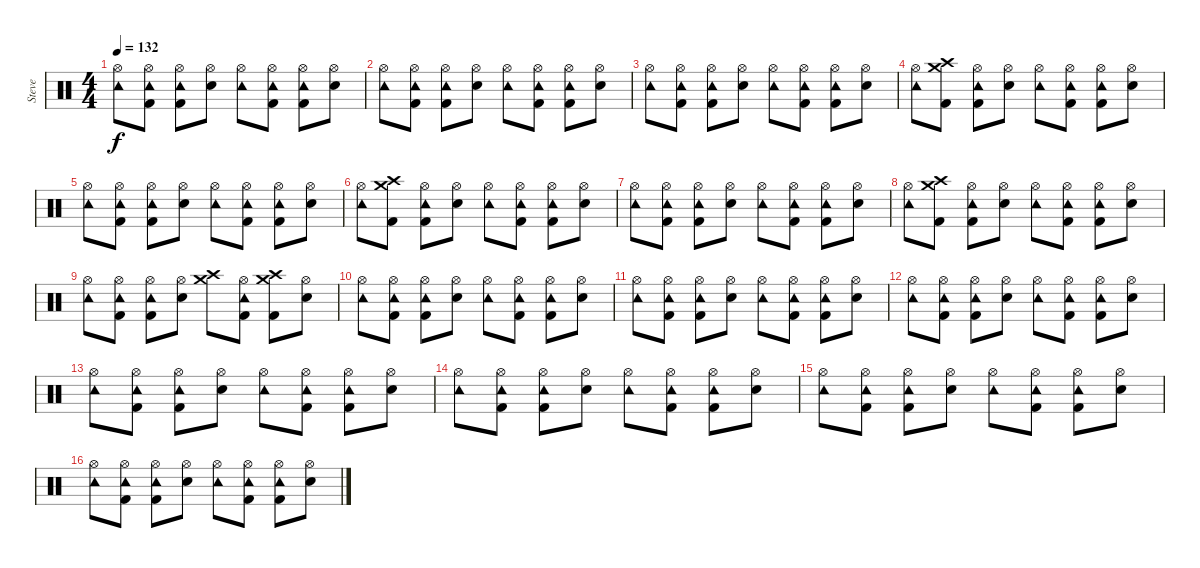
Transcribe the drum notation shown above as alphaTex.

\track ("Steve" "Steve") {instrument percussion}
\staff {score}
\articulation defaults
\ts (4 4)
\tempo 132
\clef neutral
\ks c
("Hi-Hat (open)" "Tambourine (hit)").8{dy f} ("Hi-Hat (open)" "Tambourine (hit)" "Kick (hit) 2").8 ("Hi-Hat (open)" "Tambourine (hit)" "Kick (hit) 2").8 ("Hi-Hat (open)" "Snare (hit) 2").8 ("Hi-Hat (open)" "Tambourine (hit)").8 ("Hi-Hat (open)" "Tambourine (hit)" "Kick (hit) 2").8 ("Hi-Hat (open)" "Tambourine (hit)" "Kick (hit) 2").8 ("Hi-Hat (open)" "Snare (hit) 2").8 |
("Hi-Hat (open)" "Tambourine (hit)").8 ("Hi-Hat (open)" "Tambourine (hit)" "Kick (hit) 2").8 ("Hi-Hat (open)" "Tambourine (hit)" "Kick (hit) 2").8 ("Hi-Hat (open)" "Snare (hit) 2").8 ("Hi-Hat (open)" "Tambourine (hit)").8 ("Hi-Hat (open)" "Tambourine (hit)" "Kick (hit) 2").8 ("Hi-Hat (open)" "Tambourine (hit)" "Kick (hit) 2").8 ("Hi-Hat (open)" "Snare (hit) 2").8 |
("Hi-Hat (open)" "Tambourine (hit)").8 ("Hi-Hat (open)" "Tambourine (hit)" "Kick (hit) 2").8 ("Hi-Hat (open)" "Tambourine (hit)" "Kick (hit) 2").8 ("Hi-Hat (open)" "Snare (hit) 2").8 ("Hi-Hat (open)" "Tambourine (hit)").8 ("Hi-Hat (open)" "Tambourine (hit)" "Kick (hit) 2").8 ("Hi-Hat (open)" "Tambourine (hit)" "Kick (hit) 2").8 ("Hi-Hat (open)" "Snare (hit) 2").8 |
("Hi-Hat (open)" "Tambourine (hit)").8 ("Crash high (hit)" "Crash medium (hit)" "Kick (hit) 2").8 ("Hi-Hat (open)" "Tambourine (hit)" "Kick (hit) 2").8 ("Hi-Hat (open)" "Snare (hit) 2").8 ("Hi-Hat (open)" "Tambourine (hit)").8 ("Hi-Hat (open)" "Tambourine (hit)" "Kick (hit) 2").8 ("Hi-Hat (open)" "Tambourine (hit)" "Kick (hit) 2").8 ("Hi-Hat (open)" "Snare (hit) 2").8 |
("Hi-Hat (open)" "Tambourine (hit)").8 ("Hi-Hat (open)" "Tambourine (hit)" "Kick (hit) 2").8 ("Hi-Hat (open)" "Tambourine (hit)" "Kick (hit) 2").8 ("Hi-Hat (open)" "Snare (hit) 2").8 ("Hi-Hat (open)" "Tambourine (hit)").8 ("Hi-Hat (open)" "Tambourine (hit)" "Kick (hit) 2").8 ("Hi-Hat (open)" "Tambourine (hit)" "Kick (hit) 2").8 ("Hi-Hat (open)" "Snare (hit) 2").8 |
("Hi-Hat (open)" "Tambourine (hit)").8 ("Crash high (hit)" "Crash medium (hit)" "Kick (hit) 2").8 ("Hi-Hat (open)" "Tambourine (hit)" "Kick (hit) 2").8 ("Hi-Hat (open)" "Snare (hit) 2").8 ("Hi-Hat (open)" "Tambourine (hit)").8 ("Hi-Hat (open)" "Tambourine (hit)" "Kick (hit) 2").8 ("Hi-Hat (open)" "Tambourine (hit)" "Kick (hit) 2").8 ("Hi-Hat (open)" "Snare (hit) 2").8 |
("Hi-Hat (open)" "Tambourine (hit)").8 ("Hi-Hat (open)" "Tambourine (hit)" "Kick (hit) 2").8 ("Hi-Hat (open)" "Tambourine (hit)" "Kick (hit) 2").8 ("Hi-Hat (open)" "Snare (hit) 2").8 ("Hi-Hat (open)" "Tambourine (hit)").8 ("Hi-Hat (open)" "Tambourine (hit)" "Kick (hit) 2").8 ("Hi-Hat (open)" "Tambourine (hit)" "Kick (hit) 2").8 ("Hi-Hat (open)" "Snare (hit) 2").8 |
("Hi-Hat (open)" "Tambourine (hit)").8 ("Crash high (hit)" "Crash medium (hit)" "Kick (hit) 2").8 ("Hi-Hat (open)" "Tambourine (hit)" "Kick (hit) 2").8 ("Hi-Hat (open)" "Snare (hit) 2").8 ("Hi-Hat (open)" "Tambourine (hit)").8 ("Hi-Hat (open)" "Tambourine (hit)" "Kick (hit) 2").8 ("Hi-Hat (open)" "Tambourine (hit)" "Kick (hit) 2").8 ("Hi-Hat (open)" "Snare (hit) 2").8 |
("Hi-Hat (open)" "Tambourine (hit)").8 ("Hi-Hat (open)" "Tambourine (hit)" "Kick (hit) 2").8 ("Hi-Hat (open)" "Tambourine (hit)" "Kick (hit) 2").8 ("Hi-Hat (open)" "Snare (hit) 2").8 ("Crash high (hit)" "Crash medium (hit)").8 ("Hi-Hat (open)" "Tambourine (hit)" "Kick (hit) 2").8 ("Crash high (hit)" "Crash medium (hit)" "Kick (hit) 2").8 ("Hi-Hat (open)" "Snare (hit) 2").8 |
("Hi-Hat (open)" "Tambourine (hit)").8 ("Hi-Hat (open)" "Tambourine (hit)" "Kick (hit) 2").8 ("Hi-Hat (open)" "Tambourine (hit)" "Kick (hit) 2").8 ("Hi-Hat (open)" "Snare (hit) 2").8 ("Hi-Hat (open)" "Tambourine (hit)").8 ("Hi-Hat (open)" "Tambourine (hit)" "Kick (hit) 2").8 ("Hi-Hat (open)" "Tambourine (hit)" "Kick (hit) 2").8 ("Hi-Hat (open)" "Snare (hit) 2").8 |
("Hi-Hat (open)" "Tambourine (hit)").8 ("Hi-Hat (open)" "Tambourine (hit)" "Kick (hit) 2").8 ("Hi-Hat (open)" "Tambourine (hit)" "Kick (hit) 2").8 ("Hi-Hat (open)" "Snare (hit) 2").8 ("Hi-Hat (open)" "Tambourine (hit)").8 ("Hi-Hat (open)" "Tambourine (hit)" "Kick (hit) 2").8 ("Hi-Hat (open)" "Tambourine (hit)" "Kick (hit) 2").8 ("Hi-Hat (open)" "Snare (hit) 2").8 |
("Hi-Hat (open)" "Tambourine (hit)").8 ("Hi-Hat (open)" "Tambourine (hit)" "Kick (hit) 2").8 ("Hi-Hat (open)" "Tambourine (hit)" "Kick (hit) 2").8 ("Hi-Hat (open)" "Snare (hit) 2").8 ("Hi-Hat (open)" "Tambourine (hit)").8 ("Hi-Hat (open)" "Tambourine (hit)" "Kick (hit) 2").8 ("Hi-Hat (open)" "Tambourine (hit)" "Kick (hit) 2").8 ("Hi-Hat (open)" "Snare (hit) 2").8 |
("Hi-Hat (open)" "Tambourine (hit)").8 ("Hi-Hat (open)" "Tambourine (hit)" "Kick (hit) 2").8 ("Hi-Hat (open)" "Tambourine (hit)" "Kick (hit) 2").8 ("Hi-Hat (open)" "Snare (hit) 2").8 ("Hi-Hat (open)" "Tambourine (hit)").8 ("Hi-Hat (open)" "Tambourine (hit)" "Kick (hit) 2").8 ("Hi-Hat (open)" "Tambourine (hit)" "Kick (hit) 2").8 ("Hi-Hat (open)" "Snare (hit) 2").8 |
("Hi-Hat (open)" "Tambourine (hit)").8 ("Hi-Hat (open)" "Tambourine (hit)" "Kick (hit) 2").8 ("Hi-Hat (open)" "Tambourine (hit)" "Kick (hit) 2").8 ("Hi-Hat (open)" "Snare (hit) 2").8 ("Hi-Hat (open)" "Tambourine (hit)").8 ("Hi-Hat (open)" "Tambourine (hit)" "Kick (hit) 2").8 ("Hi-Hat (open)" "Tambourine (hit)" "Kick (hit) 2").8 ("Hi-Hat (open)" "Snare (hit) 2").8 |
("Hi-Hat (open)" "Tambourine (hit)").8 ("Hi-Hat (open)" "Tambourine (hit)" "Kick (hit) 2").8 ("Hi-Hat (open)" "Tambourine (hit)" "Kick (hit) 2").8 ("Hi-Hat (open)" "Snare (hit) 2").8 ("Hi-Hat (open)" "Tambourine (hit)").8 ("Hi-Hat (open)" "Tambourine (hit)" "Kick (hit) 2").8 ("Hi-Hat (open)" "Tambourine (hit)" "Kick (hit) 2").8 ("Hi-Hat (open)" "Snare (hit) 2").8 |
("Hi-Hat (open)" "Tambourine (hit)").8 ("Hi-Hat (open)" "Tambourine (hit)" "Kick (hit) 2").8 ("Hi-Hat (open)" "Tambourine (hit)" "Kick (hit) 2").8 ("Hi-Hat (open)" "Snare (hit) 2").8 ("Hi-Hat (open)" "Tambourine (hit)").8 ("Hi-Hat (open)" "Tambourine (hit)" "Kick (hit) 2").8 ("Hi-Hat (open)" "Tambourine (hit)" "Kick (hit) 2").8 ("Hi-Hat (open)" "Snare (hit) 2").8
